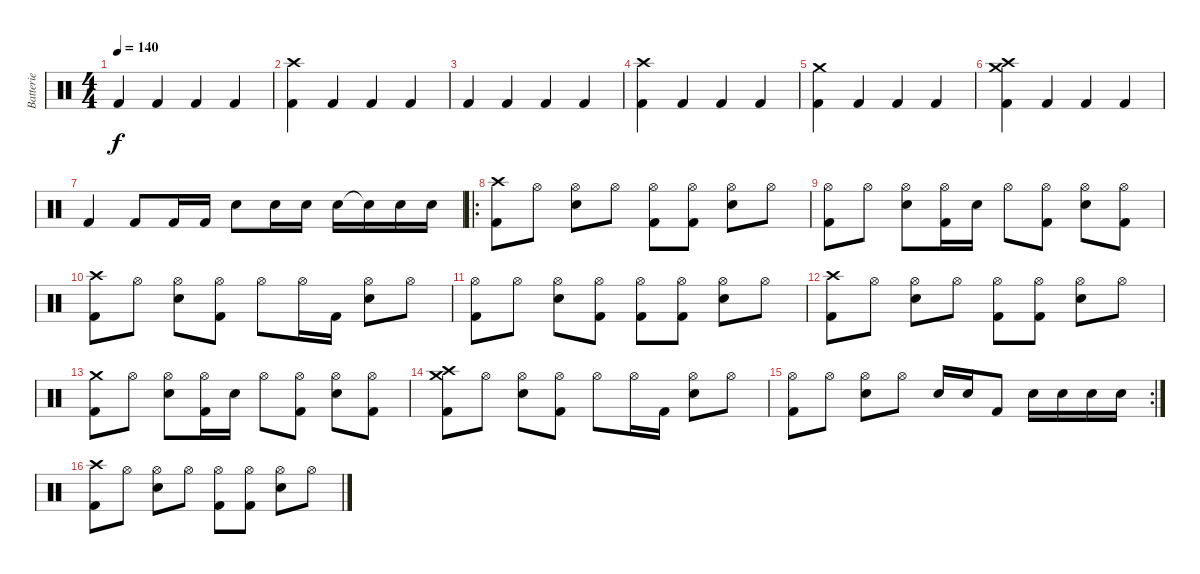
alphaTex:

\track ("Batterie" "Batterie") {instrument percussion}
\staff {score}
\articulation defaults
\ts (4 4)
\tempo 140
\clef neutral
\ks c "Kick (hit) 2".4{dy f} "Kick (hit) 2".4 "Kick (hit) 2".4 "Kick (hit) 2".4
|
("Crash high (hit)" "Kick (hit) 2").4 "Kick (hit) 2".4 "Kick (hit) 2".4 "Kick (hit) 2".4 |
"Kick (hit) 2".4 "Kick (hit) 2".4 "Kick (hit) 2".4 "Kick (hit) 2".4 |
("Crash high (hit)" "Kick (hit) 2").4 "Kick (hit) 2".4 "Kick (hit) 2".4 "Kick (hit) 2".4 |
("Crash medium (hit)" "Kick (hit) 2").4 "Kick (hit) 2".4 "Kick (hit) 2".4 "Kick (hit) 2".4 |
("Crash high (hit)" "Crash medium (hit)" "Kick (hit) 2").4 "Kick (hit) 2".4 "Kick (hit) 2".4 "Kick (hit) 2".4 |
"Kick (hit) 2".4 "Kick (hit) 2".8 "Kick (hit) 2".16 "Kick (hit) 2".16 "Snare (hit) 2".8 "Snare (hit) 2".16 "Snare (hit) 2".16 "Snare (hit) 2".16 "Snare (hit) 2"{t}.16 "Snare (hit) 2".16 "Snare (hit) 2".16 |
\ro
("Crash high (hit)" "Kick (hit) 2").8 "Hi-Hat (open)".8 ("Hi-Hat (open)" "Snare (hit) 2").8 "Hi-Hat (open)".8 ("Hi-Hat (open)" "Kick (hit) 2").8 ("Hi-Hat (open)" "Kick (hit) 2").8 ("Hi-Hat (open)" "Snare (hit) 2").8 "Hi-Hat (open)".8 |
("Hi-Hat (open)" "Kick (hit) 2").8 "Hi-Hat (open)".8 ("Hi-Hat (open)" "Snare (hit) 2").8 ("Hi-Hat (open)" "Kick (hit) 2").16 "Snare (hit) 2".16 "Hi-Hat (open)".8 ("Hi-Hat (open)" "Kick (hit) 2").8 ("Hi-Hat (open)" "Snare (hit) 2").8 ("Hi-Hat (open)" "Kick (hit) 2").8 |
("Crash high (hit)" "Kick (hit) 2").8 "Hi-Hat (open)".8 ("Hi-Hat (open)" "Snare (hit) 2").8 ("Hi-Hat (open)" "Kick (hit) 2").8 "Hi-Hat (open)".8 "Hi-Hat (open)".16 "Kick (hit) 2".16 ("Hi-Hat (open)" "Snare (hit) 2").8 "Hi-Hat (open)".8 |
("Hi-Hat (open)" "Kick (hit) 2").8 "Hi-Hat (open)".8 ("Hi-Hat (open)" "Snare (hit) 2").8 ("Hi-Hat (open)" "Kick (hit) 2").8 ("Hi-Hat (open)" "Kick (hit) 2").8 ("Hi-Hat (open)" "Kick (hit) 2").8 ("Hi-Hat (open)" "Snare (hit) 2").8 "Hi-Hat (open)".8 |
("Crash high (hit)" "Kick (hit) 2").8 "Hi-Hat (open)".8 ("Hi-Hat (open)" "Snare (hit) 2").8 "Hi-Hat (open)".8 ("Hi-Hat (open)" "Kick (hit) 2").8 ("Hi-Hat (open)" "Kick (hit) 2").8 ("Hi-Hat (open)" "Snare (hit) 2").8 "Hi-Hat (open)".8 |
("Crash medium (hit)" "Kick (hit) 2").8 "Hi-Hat (open)".8 ("Hi-Hat (open)" "Snare (hit) 2").8 ("Hi-Hat (open)" "Kick (hit) 2").16 "Snare (hit) 2".16 "Hi-Hat (open)".8 ("Hi-Hat (open)" "Kick (hit) 2").8 ("Hi-Hat (open)" "Snare (hit) 2").8 ("Hi-Hat (open)" "Kick (hit) 2").8 |
("Crash high (hit)" "Crash medium (hit)" "Kick (hit) 2").8 "Hi-Hat (open)".8 ("Hi-Hat (open)" "Snare (hit) 2").8 ("Hi-Hat (open)" "Kick (hit) 2").8 "Hi-Hat (open)".8 "Hi-Hat (open)".16 "Kick (hit) 2".16 ("Hi-Hat (open)" "Snare (hit) 2").8 "Hi-Hat (open)".8 |
\rc 2
("Hi-Hat (open)" "Kick (hit) 2").8 "Hi-Hat (open)".8 ("Hi-Hat (open)" "Snare (hit) 2").8 "Hi-Hat (open)".8 "Snare (hit) 2".16 "Snare (hit) 2".16 "Kick (hit) 2".8 "Snare (hit) 2".16 "Snare (hit) 2".16 "Snare (hit) 2".16 "Snare (hit) 2".16 |
("Crash high (hit)" "Kick (hit) 2").8 "Hi-Hat (open)".8 ("Hi-Hat (open)" "Snare (hit) 2").8 "Hi-Hat (open)".8 ("Hi-Hat (open)" "Kick (hit) 2").8 ("Hi-Hat (open)" "Kick (hit) 2").8 ("Hi-Hat (open)" "Snare (hit) 2").8 "Hi-Hat (open)".8
